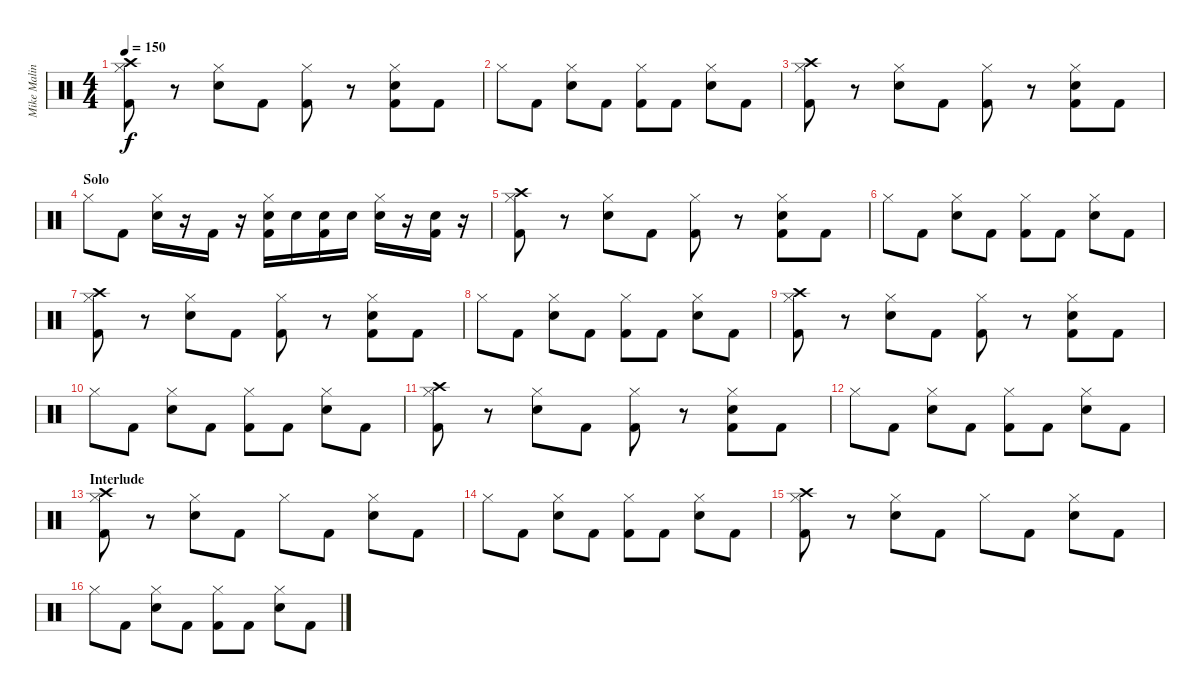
\track ("Mike Malinin - Drums" "Mike Malin") {instrument percussion}
\staff {score}
\articulation defaults
\ts (4 4)
\tempo 150
\clef neutral
\ks c
("Crash high (hit)" "Hi-Hat (closed)" "Kick (hit) 2").8{dy f} r.8 ("Hi-Hat (closed)" "Snare (hit) 2").8 "Kick (hit) 2".8 ("Hi-Hat (closed)" "Kick (hit) 2").8 r.8 ("Hi-Hat (closed)" "Snare (hit) 2" "Kick (hit) 2").8 "Kick (hit) 2".8 |
"Hi-Hat (closed)".8 "Kick (hit) 2".8 ("Hi-Hat (closed)" "Snare (hit) 2").8 "Kick (hit) 2".8 ("Hi-Hat (closed)" "Kick (hit) 2").8 "Kick (hit) 2".8 ("Hi-Hat (closed)" "Snare (hit) 2").8 "Kick (hit) 2".8 |
("Crash high (hit)" "Hi-Hat (closed)" "Kick (hit) 2").8 r.8 ("Hi-Hat (closed)" "Snare (hit) 2").8 "Kick (hit) 2".8 ("Hi-Hat (closed)" "Kick (hit) 2").8 r.8 ("Hi-Hat (closed)" "Snare (hit) 2" "Kick (hit) 2").8 "Kick (hit) 2".8 |
\section ("" "Solo")
"Hi-Hat (closed)".8 "Kick (hit) 2".8 ("Hi-Hat (closed)" "Snare (hit) 2").16 r.16 "Kick (hit) 2".16 r.16 ("Hi-Hat (closed)" "Snare (hit) 2" "Kick (hit) 2").16 "Snare (hit) 2".16 ("Snare (hit) 2" "Kick (hit) 2").16 "Snare (hit) 2".16 ("Hi-Hat (closed)" "Snare (hit) 2").16 r.16 ("Snare (hit) 2" "Kick (hit) 2").16 r.16 |
("Crash high (hit)" "Hi-Hat (closed)" "Kick (hit) 2").8 r.8 ("Hi-Hat (closed)" "Snare (hit) 2").8 "Kick (hit) 2".8 ("Hi-Hat (closed)" "Kick (hit) 2").8 r.8 ("Hi-Hat (closed)" "Snare (hit) 2" "Kick (hit) 2").8 "Kick (hit) 2".8 |
"Hi-Hat (closed)".8 "Kick (hit) 2".8 ("Hi-Hat (closed)" "Snare (hit) 2").8 "Kick (hit) 2".8 ("Hi-Hat (closed)" "Kick (hit) 2").8 "Kick (hit) 2".8 ("Hi-Hat (closed)" "Snare (hit) 2").8 "Kick (hit) 2".8 |
("Crash high (hit)" "Hi-Hat (closed)" "Kick (hit) 2").8 r.8 ("Hi-Hat (closed)" "Snare (hit) 2").8 "Kick (hit) 2".8 ("Hi-Hat (closed)" "Kick (hit) 2").8 r.8 ("Hi-Hat (closed)" "Snare (hit) 2" "Kick (hit) 2").8 "Kick (hit) 2".8 |
"Hi-Hat (closed)".8 "Kick (hit) 2".8 ("Hi-Hat (closed)" "Snare (hit) 2").8 "Kick (hit) 2".8 ("Hi-Hat (closed)" "Kick (hit) 2").8 "Kick (hit) 2".8 ("Hi-Hat (closed)" "Snare (hit) 2").8 "Kick (hit) 2".8 |
("Crash high (hit)" "Hi-Hat (closed)" "Kick (hit) 2").8 r.8 ("Hi-Hat (closed)" "Snare (hit) 2").8 "Kick (hit) 2".8 ("Hi-Hat (closed)" "Kick (hit) 2").8 r.8 ("Hi-Hat (closed)" "Snare (hit) 2" "Kick (hit) 2").8 "Kick (hit) 2".8 |
"Hi-Hat (closed)".8 "Kick (hit) 2".8 ("Hi-Hat (closed)" "Snare (hit) 2").8 "Kick (hit) 2".8 ("Hi-Hat (closed)" "Kick (hit) 2").8 "Kick (hit) 2".8 ("Hi-Hat (closed)" "Snare (hit) 2").8 "Kick (hit) 2".8 |
("Crash high (hit)" "Hi-Hat (closed)" "Kick (hit) 2").8 r.8 ("Hi-Hat (closed)" "Snare (hit) 2").8 "Kick (hit) 2".8 ("Hi-Hat (closed)" "Kick (hit) 2").8 r.8 ("Hi-Hat (closed)" "Snare (hit) 2" "Kick (hit) 2").8 "Kick (hit) 2".8 |
"Hi-Hat (closed)".8 "Kick (hit) 2".8 ("Hi-Hat (closed)" "Snare (hit) 2").8 "Kick (hit) 2".8 ("Hi-Hat (closed)" "Kick (hit) 2").8 "Kick (hit) 2".8 ("Hi-Hat (closed)" "Snare (hit) 2").8 "Kick (hit) 2".8 |
\section ("" "Interlude")
("Crash high (hit)" "Hi-Hat (closed)" "Kick (hit) 2").8 r.8 ("Hi-Hat (closed)" "Snare (hit) 2").8 "Kick (hit) 2".8 "Hi-Hat (closed)".8 "Kick (hit) 2".8 ("Hi-Hat (closed)" "Snare (hit) 2").8 "Kick (hit) 2".8 |
"Hi-Hat (closed)".8 "Kick (hit) 2".8 ("Hi-Hat (closed)" "Snare (hit) 2").8 "Kick (hit) 2".8 ("Hi-Hat (closed)" "Kick (hit) 2").8 "Kick (hit) 2".8 ("Hi-Hat (closed)" "Snare (hit) 2").8 "Kick (hit) 2".8 |
("Crash high (hit)" "Hi-Hat (closed)" "Kick (hit) 2").8 r.8 ("Hi-Hat (closed)" "Snare (hit) 2").8 "Kick (hit) 2".8 "Hi-Hat (closed)".8 "Kick (hit) 2".8 ("Hi-Hat (closed)" "Snare (hit) 2").8 "Kick (hit) 2".8 |
"Hi-Hat (closed)".8 "Kick (hit) 2".8 ("Hi-Hat (closed)" "Snare (hit) 2").8 "Kick (hit) 2".8 ("Hi-Hat (closed)" "Kick (hit) 2").8 "Kick (hit) 2".8 ("Hi-Hat (closed)" "Snare (hit) 2").8 "Kick (hit) 2".8
